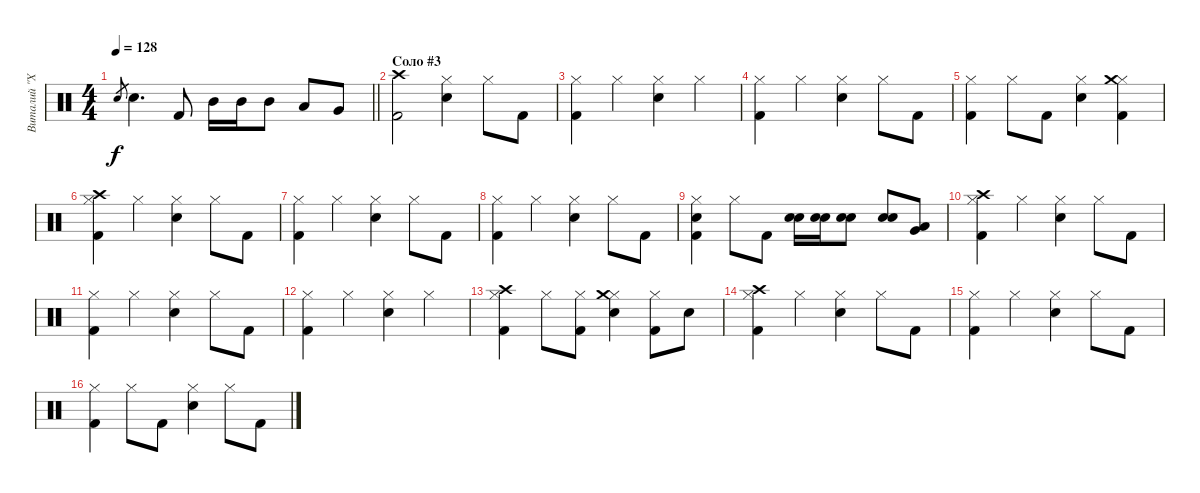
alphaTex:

\track ("Виталий \"Хамер\" Лядов" "Виталий \"Х") {instrument percussion}
\staff {score}
\articulation defaults
\ts (4 4)
\tempo 128
\clef neutral
\barLineRight lightlight
\ks c "Electric Snare (hit)".8{gr dy f} "Electric Snare (hit)".4{d} "Kick (hit) 2".8 "Mid Tom (hit)".16 "Mid Tom (hit)".16 "Mid Tom (hit)".8 "Low Tom (hit)".8 "Very Low Tom (hit)".8
|
\section ("" "Соло #3")
("Kick (hit) 2" "Crash high (hit)").2 ("Electric Snare (hit)" "Hi-Hat (closed)").4 "Hi-Hat (closed)".8 "Kick (hit) 2".8 |
("Kick (hit) 2" "Hi-Hat (closed)").4 "Hi-Hat (closed)".4 ("Electric Snare (hit)" "Hi-Hat (closed)").4 "Hi-Hat (closed)".4 |
("Kick (hit) 2" "Hi-Hat (closed)").4 "Hi-Hat (closed)".4 ("Electric Snare (hit)" "Hi-Hat (closed)").4 "Hi-Hat (closed)".8 "Kick (hit) 2".8 |
("Kick (hit) 2" "Hi-Hat (closed)").4 "Hi-Hat (closed)".8 "Kick (hit) 2".8 ("Electric Snare (hit)" "Hi-Hat (closed)").4 ("Kick (hit) 2" "Hi-Hat (closed)" "Crash medium (hit)").4 |
("Kick (hit) 2" "Hi-Hat (closed)" "Crash high (hit)").4 "Hi-Hat (closed)".4 ("Electric Snare (hit)" "Hi-Hat (closed)").4 "Hi-Hat (closed)".8 "Kick (hit) 2".8 |
("Kick (hit) 2" "Hi-Hat (closed)").4 "Hi-Hat (closed)".4 ("Electric Snare (hit)" "Hi-Hat (closed)").4 "Hi-Hat (closed)".8 "Kick (hit) 2".8 |
("Kick (hit) 2" "Hi-Hat (closed)").4 "Hi-Hat (closed)".4 ("Electric Snare (hit)" "Hi-Hat (closed)").4 "Hi-Hat (closed)".8 "Kick (hit) 2".8 |
("Kick (hit) 2" "Electric Snare (hit)" "Hi-Hat (closed)").4 "Hi-Hat (closed)".8 "Kick (hit) 2".8 ("Electric Snare (hit)" "Electric Snare (hit)").16 ("Electric Snare (hit)" "Electric Snare (hit)").16 ("Electric Snare (hit)" "Electric Snare (hit)").8 ("Electric Snare (hit)" "Electric Snare (hit)").8 ("Low Tom (hit)" "Very Low Tom (hit)").8 |
("Kick (hit) 2" "Hi-Hat (closed)" "Crash high (hit)").4 "Hi-Hat (closed)".4 ("Electric Snare (hit)" "Hi-Hat (closed)").4 "Hi-Hat (closed)".8 "Kick (hit) 2".8 |
("Kick (hit) 2" "Hi-Hat (closed)").4 "Hi-Hat (closed)".4 ("Electric Snare (hit)" "Hi-Hat (closed)").4 "Hi-Hat (closed)".8 "Kick (hit) 2".8 |
("Kick (hit) 2" "Hi-Hat (closed)").4 "Hi-Hat (closed)".4 ("Electric Snare (hit)" "Hi-Hat (closed)").4 "Hi-Hat (closed)".4 |
("Kick (hit) 2" "Hi-Hat (closed)" "Crash high (hit)").4 "Hi-Hat (closed)".8 ("Kick (hit) 2" "Hi-Hat (closed)").8 ("Electric Snare (hit)" "Hi-Hat (closed)" "Crash medium (hit)").4 ("Kick (hit) 2" "Hi-Hat (closed)").8 "Electric Snare (hit)".8 |
("Kick (hit) 2" "Hi-Hat (closed)" "Crash high (hit)").4 "Hi-Hat (closed)".4 ("Electric Snare (hit)" "Hi-Hat (closed)").4 "Hi-Hat (closed)".8 "Kick (hit) 2".8 |
("Kick (hit) 2" "Hi-Hat (closed)").4 "Hi-Hat (closed)".4 ("Electric Snare (hit)" "Hi-Hat (closed)").4 "Hi-Hat (closed)".8 "Kick (hit) 2".8 |
("Kick (hit) 2" "Hi-Hat (closed)").4 "Hi-Hat (closed)".8 "Kick (hit) 2".8 ("Electric Snare (hit)" "Hi-Hat (closed)").4 "Hi-Hat (closed)".8 "Kick (hit) 2".8
